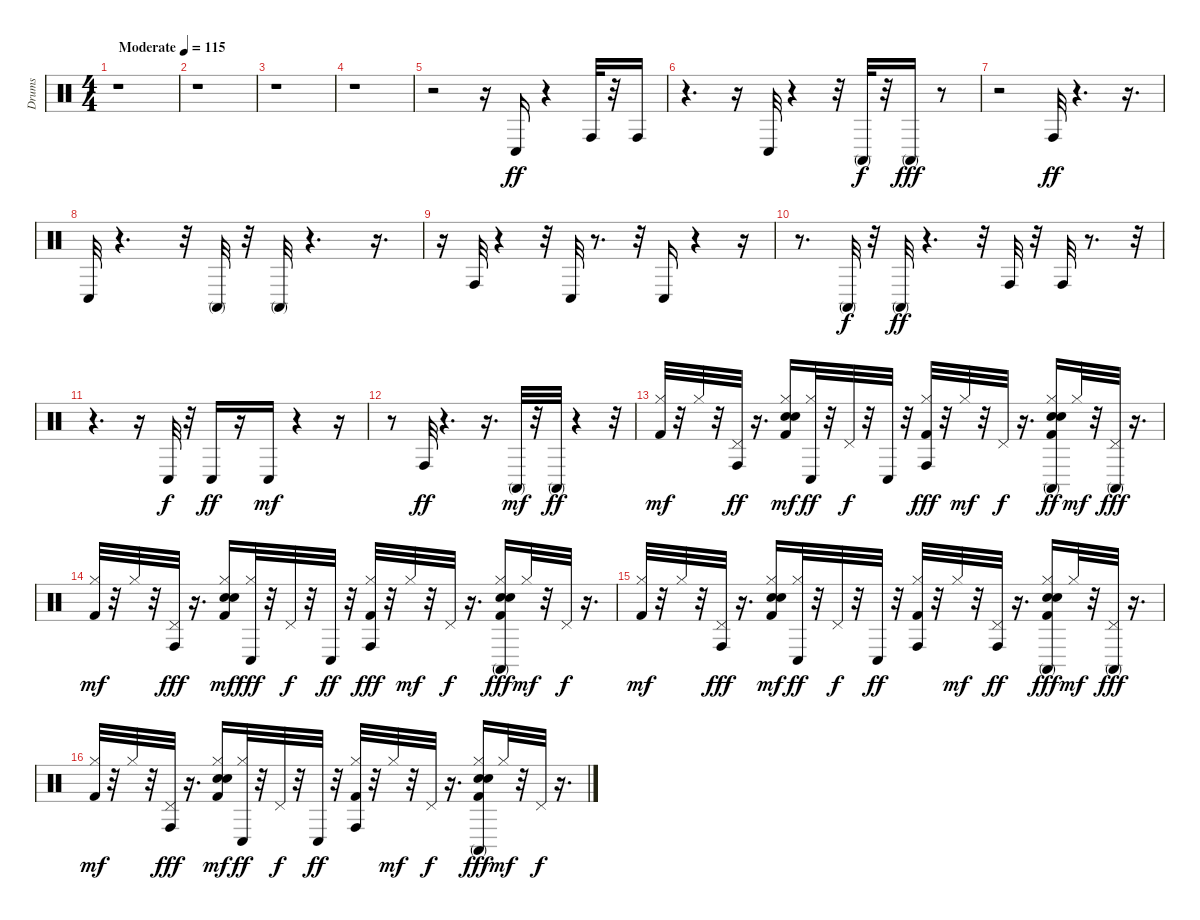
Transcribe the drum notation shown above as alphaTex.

\track ("Drums" "Drums") {instrument percussion}
\staff {score}
\articulation defaults
\ts (4 4)
\tempo (115 "Moderate")
\clef neutral
\ks c
r.1{dy ff} |
r.1 |
r.1 |
r.1 |
r.2 r.16 "Conga low (hit)".16 r.4 "Conga high (hit)".32 r.32 "Conga high (hit)".16 |
r.4{d} r.16 "Conga low (hit)".32 r.4 r.32 "Conga high (mute)".32{dy f} r.32 "Conga high (mute)".16{dy fff} r.8 |
r.2 "Conga high (hit)".32{dy ff} r.4{d} r.16{d} |
"Conga low (hit)".32 r.4{d} r.32 "Conga high (mute)".32 r.32 "Conga high (mute)".32 r.4{d} r.16{d} |
r.16 "Conga high (hit)".32 r.4 r.32 "Conga low (hit)".32 r.8{d} r.32 "Conga low (hit)".16 r.4 r.16 |
r.8{d} "Conga high (mute)".32{dy f} r.32 "Conga high (mute)".32{dy ff} r.4{d} r.32 "Conga high (hit)".32 r.32 "Conga high (hit)".32 r.8{d} r.32 |
r.4{d} r.16 "Conga low (hit)".32{dy f} r.32 "Conga low (hit)".16{dy ff} r.16 "Conga low (hit)".16{dy mf} r.4 r.16 |
r.8 "Conga high (hit)".32{dy ff} r.4{d} r.16{d} "Conga high (mute)".32{dy mf} r.32 "Conga high (mute)".32{dy ff} r.4 r.32 |
("Kick (hit) 2" "Hi-Hat (closed)").32{dy mf} r.32 "Hi-Hat (closed)".32 r.32 ("Pedal Hi-Hat (hit)" "Conga high (hit)").32{dy ff} r.16{d} ("Kick (hit) 2" "Snare (hit) 2" "Hand Clap (hit)" "Hi-Hat (closed)").16{dy mf} ("Hi-Hat (closed)" "Conga low (hit)").32{dy ff} r.32 "Pedal Hi-Hat (hit)".32{dy f} r.32 "Conga low (hit)".32 r.32 ("Kick (hit) 2" "Hi-Hat (closed)" "Conga high (hit)").32{dy fff} r.32 "Hi-Hat (closed)".32{dy mf} r.32 "Pedal Hi-Hat (hit)".32{dy f} r.16{d} ("Kick (hit) 2" "Snare (hit) 2" "Hand Clap (hit)" "Hi-Hat (closed)" "Conga high (mute)").16{dy ff} "Hi-Hat (closed)".32{dy mf} r.32 ("Pedal Hi-Hat (hit)" "Conga high (mute)").32{dy fff} r.16{d} |
("Kick (hit) 2" "Hi-Hat (closed)").32{dy mf} r.32 "Hi-Hat (closed)".32 r.32 ("Pedal Hi-Hat (hit)" "Conga high (hit)").32{dy fff} r.16{d} ("Kick (hit) 2" "Snare (hit) 2" "Hand Clap (hit)" "Hi-Hat (closed)").16{dy mf} ("Hi-Hat (closed)" "Conga low (hit)").32{dy fff} r.32 "Pedal Hi-Hat (hit)".32{dy f} r.32 "Conga low (hit)".32{dy ff} r.32 ("Kick (hit) 2" "Hi-Hat (closed)" "Conga high (hit)").32{dy fff} r.32 "Hi-Hat (closed)".32{dy mf} r.32 "Pedal Hi-Hat (hit)".32{dy f} r.16{d} ("Kick (hit) 2" "Snare (hit) 2" "Hand Clap (hit)" "Hi-Hat (closed)" "Conga high (mute)").16{dy fff} "Hi-Hat (closed)".32{dy mf} r.32 "Pedal Hi-Hat (hit)".32{dy f} r.16{d} |
("Kick (hit) 2" "Hi-Hat (closed)").32{dy mf} r.32 "Hi-Hat (closed)".32 r.32 ("Pedal Hi-Hat (hit)" "Conga high (hit)").32{dy fff} r.16{d} ("Kick (hit) 2" "Snare (hit) 2" "Hand Clap (hit)" "Hi-Hat (closed)").16{dy mf} ("Hi-Hat (closed)" "Conga low (hit)").32{dy ff} r.32 "Pedal Hi-Hat (hit)".32{dy f} r.32 "Conga low (hit)".32{dy ff} r.32 ("Kick (hit) 2" "Hi-Hat (closed)" "Conga high (hit)").32 r.32 "Hi-Hat (closed)".32{dy mf} r.32 ("Pedal Hi-Hat (hit)" "Conga high (hit)").32{dy ff} r.16{d} ("Kick (hit) 2" "Snare (hit) 2" "Hand Clap (hit)" "Hi-Hat (closed)" "Conga high (mute)").16{dy fff} "Hi-Hat (closed)".32{dy mf} r.32 ("Pedal Hi-Hat (hit)" "Conga high (mute)").32{dy fff} r.16{d} |
("Kick (hit) 2" "Hi-Hat (closed)").32{dy mf} r.32 "Hi-Hat (closed)".32 r.32 ("Pedal Hi-Hat (hit)" "Conga high (hit)").32{dy fff} r.16{d} ("Kick (hit) 2" "Snare (hit) 2" "Hand Clap (hit)" "Hi-Hat (closed)").16{dy mf} ("Hi-Hat (closed)" "Conga low (hit)").32{dy ff} r.32 "Pedal Hi-Hat (hit)".32{dy f} r.32 "Conga low (hit)".32{dy ff} r.32 ("Kick (hit) 2" "Hi-Hat (closed)" "Conga high (hit)").32 r.32 "Hi-Hat (closed)".32{dy mf} r.32 "Pedal Hi-Hat (hit)".32{dy f} r.16{d} ("Kick (hit) 2" "Snare (hit) 2" "Hand Clap (hit)" "Hi-Hat (closed)" "Conga high (mute)").16{dy fff} "Hi-Hat (closed)".32{dy mf} r.32 "Pedal Hi-Hat (hit)".32{dy f} r.16{d}
